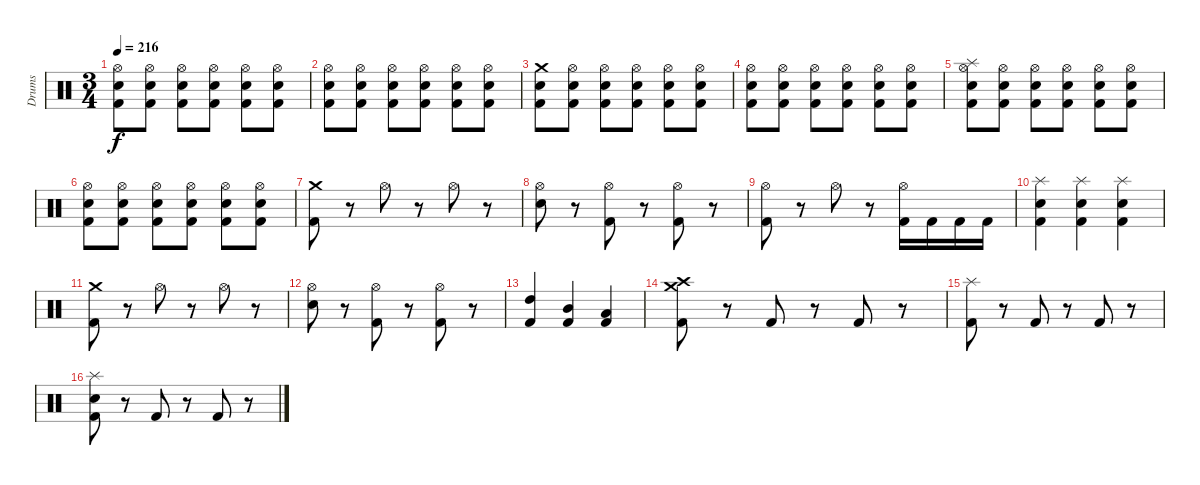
\track ("Drums" "Drums") {instrument percussion}
\staff {score}
\articulation defaults
\ts (3 4)
\tempo 216
\clef neutral
\ks c
("Hi-Hat (open)" "Electric Snare (hit)" "Kick (hit) 2").8{dy f} ("Hi-Hat (open)" "Electric Snare (hit)" "Kick (hit) 2").8 ("Hi-Hat (open)" "Electric Snare (hit)" "Kick (hit) 2").8 ("Hi-Hat (open)" "Electric Snare (hit)" "Kick (hit) 2").8 ("Hi-Hat (open)" "Electric Snare (hit)" "Kick (hit) 2").8 ("Hi-Hat (open)" "Electric Snare (hit)" "Kick (hit) 2").8 |
("Hi-Hat (open)" "Electric Snare (hit)" "Kick (hit) 2").8 ("Hi-Hat (open)" "Electric Snare (hit)" "Kick (hit) 2").8 ("Hi-Hat (open)" "Electric Snare (hit)" "Kick (hit) 2").8 ("Hi-Hat (open)" "Electric Snare (hit)" "Kick (hit) 2").8 ("Hi-Hat (open)" "Electric Snare (hit)" "Kick (hit) 2").8 ("Hi-Hat (open)" "Electric Snare (hit)" "Kick (hit) 2").8 |
("Crash medium (hit)" "Electric Snare (hit)" "Kick (hit) 2").8 ("Hi-Hat (open)" "Electric Snare (hit)" "Kick (hit) 2").8 ("Hi-Hat (open)" "Electric Snare (hit)" "Kick (hit) 2").8 ("Hi-Hat (open)" "Electric Snare (hit)" "Kick (hit) 2").8 ("Hi-Hat (open)" "Electric Snare (hit)" "Kick (hit) 2").8 ("Hi-Hat (open)" "Electric Snare (hit)" "Kick (hit) 2").8 |
("Hi-Hat (open)" "Electric Snare (hit)" "Kick (hit) 2").8 ("Hi-Hat (open)" "Electric Snare (hit)" "Kick (hit) 2").8 ("Hi-Hat (open)" "Electric Snare (hit)" "Kick (hit) 2").8 ("Hi-Hat (open)" "Electric Snare (hit)" "Kick (hit) 2").8 ("Hi-Hat (open)" "Electric Snare (hit)" "Kick (hit) 2").8 ("Hi-Hat (open)" "Electric Snare (hit)" "Kick (hit) 2").8 |
("Splash (hit)" "Hi-Hat (open)" "Electric Snare (hit)" "Kick (hit) 2").8 ("Hi-Hat (open)" "Electric Snare (hit)" "Kick (hit) 2").8 ("Hi-Hat (open)" "Electric Snare (hit)" "Kick (hit) 2").8 ("Hi-Hat (open)" "Electric Snare (hit)" "Kick (hit) 2").8 ("Hi-Hat (open)" "Electric Snare (hit)" "Kick (hit) 2").8 ("Hi-Hat (open)" "Electric Snare (hit)" "Kick (hit) 2").8 |
("Hi-Hat (open)" "Electric Snare (hit)" "Kick (hit) 2").8 ("Hi-Hat (open)" "Electric Snare (hit)" "Kick (hit) 2").8 ("Hi-Hat (open)" "Electric Snare (hit)" "Kick (hit) 2").8 ("Hi-Hat (open)" "Electric Snare (hit)" "Kick (hit) 2").8 ("Hi-Hat (open)" "Electric Snare (hit)" "Kick (hit) 2").8 ("Hi-Hat (open)" "Electric Snare (hit)" "Kick (hit) 2").8 |
("Crash medium (hit)" "Kick (hit) 2").8 r.8 "Hi-Hat (open)".8 r.8 "Hi-Hat (open)".8 r.8 |
("Hi-Hat (open)" "Electric Snare (hit)").8 r.8 ("Hi-Hat (open)" "Kick (hit) 2").8 r.8 ("Hi-Hat (open)" "Kick (hit) 2").8 r.8 |
("Hi-Hat (open)" "Kick (hit) 2").8 r.8 "Hi-Hat (open)".8 r.8 ("Hi-Hat (open)" "Kick (hit) 2").16 "Kick (hit) 2".16 "Kick (hit) 2".16 "Kick (hit) 2".16 |
("Splash (hit)" "Electric Snare (hit)" "Kick (hit) 2").4 ("Splash (hit)" "Electric Snare (hit)" "Kick (hit) 2").4 ("Splash (hit)" "Electric Snare (hit)" "Kick (hit) 2").4 |
("Crash medium (hit)" "Kick (hit) 2").8 r.8 "Hi-Hat (open)".8 r.8 "Hi-Hat (open)".8 r.8 |
("Hi-Hat (open)" "Electric Snare (hit)").8 r.8 ("Hi-Hat (open)" "Kick (hit) 2").8 r.8 ("Hi-Hat (open)" "Kick (hit) 2").8 r.8 |
("High Tom (hit)" "Kick (hit) 2").4 ("Mid Tom (hit)" "Kick (hit) 2").4 ("Low Tom (hit)" "Kick (hit) 2").4 |
("Crash high (hit)" "Crash medium (hit)" "Kick (hit) 2").8 r.8 "Kick (hit) 2".8 r.8 "Kick (hit) 2".8 r.8 |
("Splash (hit)" "Kick (hit) 2").8 r.8 "Kick (hit) 2".8 r.8 "Kick (hit) 2".8 r.8 |
("Splash (hit)" "Electric Snare (hit)" "Kick (hit) 2").8 r.8 "Kick (hit) 2".8 r.8 "Kick (hit) 2".8 r.8
